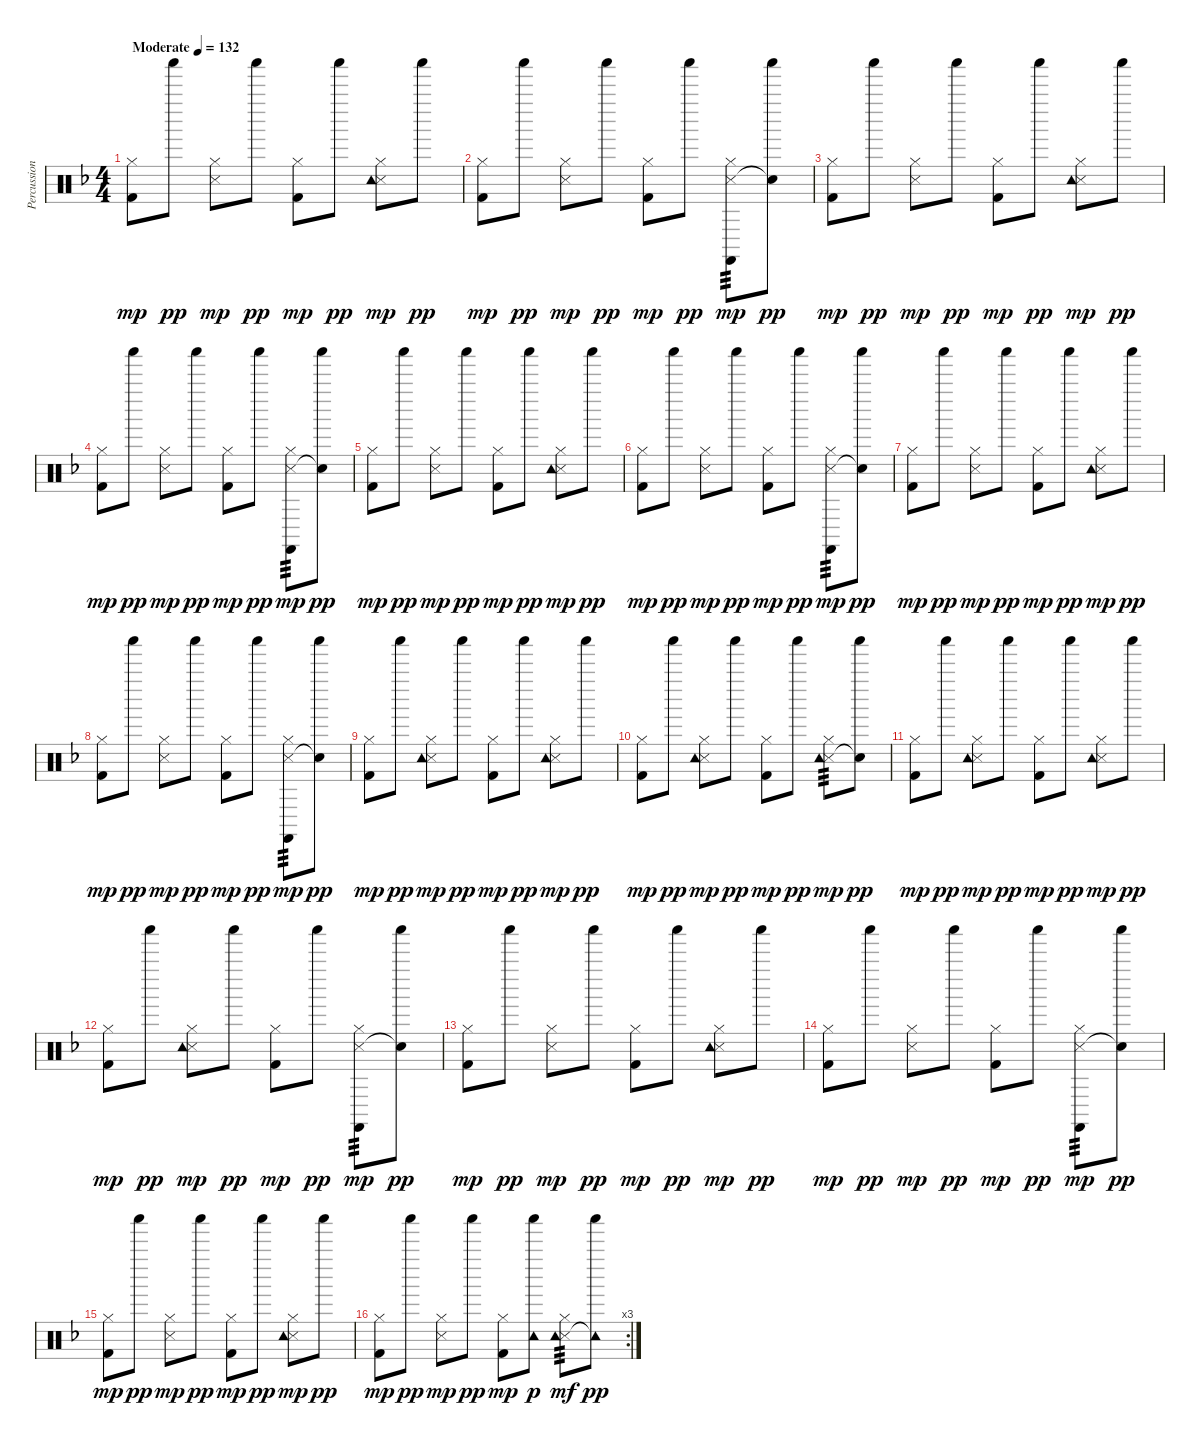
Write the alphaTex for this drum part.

\track ("Percussion" "Percussion") {instrument percussion}
\staff {score}
\articulation defaults
\ts (4 4)
\tempo (132 "Moderate")
\clef neutral
\ks f
("Hi-Hat (closed)" "Kick (hit) 2").8{dy mp} "Shaker (hit)".8{dy pp} ("Hi-Hat (closed)" "Snare (side stick) 3").8{dy mp} "Shaker (hit)".8{dy pp} ("Hi-Hat (closed)" "Kick (hit) 2").8{dy mp} "Shaker (hit)".8{dy pp} ("Hi-Hat (closed)" "Snare (side stick) 3" "Tambourine (hit)").8{dy mp} "Shaker (hit)".8{dy pp} |
("Hi-Hat (closed)" "Kick (hit) 2").8{dy mp} "Shaker (hit)".8{dy pp} ("Hi-Hat (closed)" "Snare (side stick) 3").8{dy mp} "Shaker (hit)".8{dy pp} ("Hi-Hat (closed)" "Kick (hit) 2").8{dy mp} "Shaker (hit)".8{dy pp} ("Hi-Hat (closed)" "Snare (side stick) 3" "Castanets (hit)").8{tp 3 dy mp} ("Shaker (hit)" "Snare (hit)"{t}).8{dy pp} |
("Hi-Hat (closed)" "Kick (hit) 2").8{dy mp} "Shaker (hit)".8{dy pp} ("Hi-Hat (closed)" "Snare (side stick) 3").8{dy mp} "Shaker (hit)".8{dy pp} ("Hi-Hat (closed)" "Kick (hit) 2").8{dy mp} "Shaker (hit)".8{dy pp} ("Hi-Hat (closed)" "Snare (side stick) 3" "Tambourine (hit)").8{dy mp} "Shaker (hit)".8{dy pp} |
("Hi-Hat (closed)" "Kick (hit) 2").8{dy mp} "Shaker (hit)".8{dy pp} ("Hi-Hat (closed)" "Snare (side stick) 3").8{dy mp} "Shaker (hit)".8{dy pp} ("Hi-Hat (closed)" "Kick (hit) 2").8{dy mp} "Shaker (hit)".8{dy pp} ("Hi-Hat (closed)" "Snare (side stick) 3" "Castanets (hit)").8{tp 3 dy mp} ("Shaker (hit)" "Snare (hit)"{t}).8{dy pp} |
("Hi-Hat (closed)" "Kick (hit) 2").8{dy mp} "Shaker (hit)".8{dy pp} ("Hi-Hat (closed)" "Snare (side stick) 3").8{dy mp} "Shaker (hit)".8{dy pp} ("Hi-Hat (closed)" "Kick (hit) 2").8{dy mp} "Shaker (hit)".8{dy pp} ("Hi-Hat (closed)" "Snare (side stick) 3" "Tambourine (hit)").8{dy mp} "Shaker (hit)".8{dy pp} |
("Hi-Hat (closed)" "Kick (hit) 2").8{dy mp} "Shaker (hit)".8{dy pp} ("Hi-Hat (closed)" "Snare (side stick) 3").8{dy mp} "Shaker (hit)".8{dy pp} ("Hi-Hat (closed)" "Kick (hit) 2").8{dy mp} "Shaker (hit)".8{dy pp} ("Hi-Hat (closed)" "Snare (side stick) 3" "Castanets (hit)").8{tp 3 dy mp} ("Shaker (hit)" "Snare (hit)"{t}).8{dy pp} |
("Hi-Hat (closed)" "Kick (hit) 2").8{dy mp} "Shaker (hit)".8{dy pp} ("Hi-Hat (closed)" "Snare (side stick) 3").8{dy mp} "Shaker (hit)".8{dy pp} ("Hi-Hat (closed)" "Kick (hit) 2").8{dy mp} "Shaker (hit)".8{dy pp} ("Hi-Hat (closed)" "Snare (side stick) 3" "Tambourine (hit)").8{dy mp} "Shaker (hit)".8{dy pp} |
("Hi-Hat (closed)" "Kick (hit) 2").8{dy mp} "Shaker (hit)".8{dy pp} ("Hi-Hat (closed)" "Snare (side stick) 3").8{dy mp} "Shaker (hit)".8{dy pp} ("Hi-Hat (closed)" "Kick (hit) 2").8{dy mp} "Shaker (hit)".8{dy pp} ("Hi-Hat (closed)" "Snare (side stick) 3" "Castanets (hit)").8{tp 3 dy mp} ("Shaker (hit)" "Snare (hit)"{t}).8{dy pp} |
("Hi-Hat (closed)" "Kick (hit) 2").8{dy mp} "Shaker (hit)".8{dy pp} ("Hi-Hat (closed)" "Snare (side stick) 3" "Tambourine (hit)").8{dy mp} "Shaker (hit)".8{dy pp} ("Hi-Hat (closed)" "Kick (hit) 2").8{dy mp} "Shaker (hit)".8{dy pp} ("Hi-Hat (closed)" "Snare (side stick) 3" "Tambourine (hit)").8{dy mp} "Shaker (hit)".8{dy pp} |
("Hi-Hat (closed)" "Kick (hit) 2").8{dy mp} "Shaker (hit)".8{dy pp} ("Hi-Hat (closed)" "Snare (side stick) 3" "Tambourine (hit)").8{dy mp} "Shaker (hit)".8{dy pp} ("Hi-Hat (closed)" "Kick (hit) 2").8{dy mp} "Shaker (hit)".8{dy pp} ("Hi-Hat (closed)" "Snare (side stick) 3" "Tambourine (hit)").8{tp 3 dy mp} ("Shaker (hit)" "Snare (hit)"{t}).8{dy pp} |
("Hi-Hat (closed)" "Kick (hit) 2").8{dy mp} "Shaker (hit)".8{dy pp} ("Hi-Hat (closed)" "Snare (side stick) 3" "Tambourine (hit)").8{dy mp} "Shaker (hit)".8{dy pp} ("Hi-Hat (closed)" "Kick (hit) 2").8{dy mp} "Shaker (hit)".8{dy pp} ("Hi-Hat (closed)" "Snare (side stick) 3" "Tambourine (hit)").8{dy mp} "Shaker (hit)".8{dy pp} |
("Hi-Hat (closed)" "Kick (hit) 2").8{dy mp} "Shaker (hit)".8{dy pp} ("Hi-Hat (closed)" "Snare (side stick) 3" "Tambourine (hit)").8{dy mp} "Shaker (hit)".8{dy pp} ("Hi-Hat (closed)" "Kick (hit) 2").8{dy mp} "Shaker (hit)".8{dy pp} ("Hi-Hat (closed)" "Snare (side stick) 3" "Castanets (hit)").8{tp 3 dy mp} ("Shaker (hit)" "Snare (hit)"{t}).8{dy pp} |
("Hi-Hat (closed)" "Kick (hit) 2").8{dy mp} "Shaker (hit)".8{dy pp} ("Hi-Hat (closed)" "Snare (side stick) 3").8{dy mp} "Shaker (hit)".8{dy pp} ("Hi-Hat (closed)" "Kick (hit) 2").8{dy mp} "Shaker (hit)".8{dy pp} ("Hi-Hat (closed)" "Snare (side stick) 3" "Tambourine (hit)").8{dy mp} "Shaker (hit)".8{dy pp} |
("Hi-Hat (closed)" "Kick (hit) 2").8{dy mp} "Shaker (hit)".8{dy pp} ("Hi-Hat (closed)" "Snare (side stick) 3").8{dy mp} "Shaker (hit)".8{dy pp} ("Hi-Hat (closed)" "Kick (hit) 2").8{dy mp} "Shaker (hit)".8{dy pp} ("Hi-Hat (closed)" "Snare (side stick) 3" "Castanets (hit)").8{tp 3 dy mp} ("Shaker (hit)" "Snare (hit)"{t}).8{dy pp} |
("Hi-Hat (closed)" "Kick (hit) 2").8{dy mp} "Shaker (hit)".8{dy pp} ("Hi-Hat (closed)" "Snare (side stick) 3").8{dy mp} "Shaker (hit)".8{dy pp} ("Hi-Hat (closed)" "Kick (hit) 2").8{dy mp} "Shaker (hit)".8{dy pp} ("Hi-Hat (closed)" "Snare (side stick) 3" "Tambourine (hit)").8{dy mp} "Shaker (hit)".8{dy pp} |
\rc 3
("Hi-Hat (closed)" "Kick (hit) 2").8{dy mp} "Shaker (hit)".8{dy pp} ("Hi-Hat (closed)" "Snare (side stick) 3").8{dy mp} "Shaker (hit)".8{dy pp} ("Hi-Hat (closed)" "Kick (hit) 2").8{dy mp} ("Shaker (hit)" "Tambourine (hit)").8{dy p} ("Hi-Hat (closed)" "Snare (side stick) 3" "Tambourine (hit)").8{tp 3 dy mf} ("Shaker (hit)" "Tambourine (hit)"{t}).8{dy pp}
